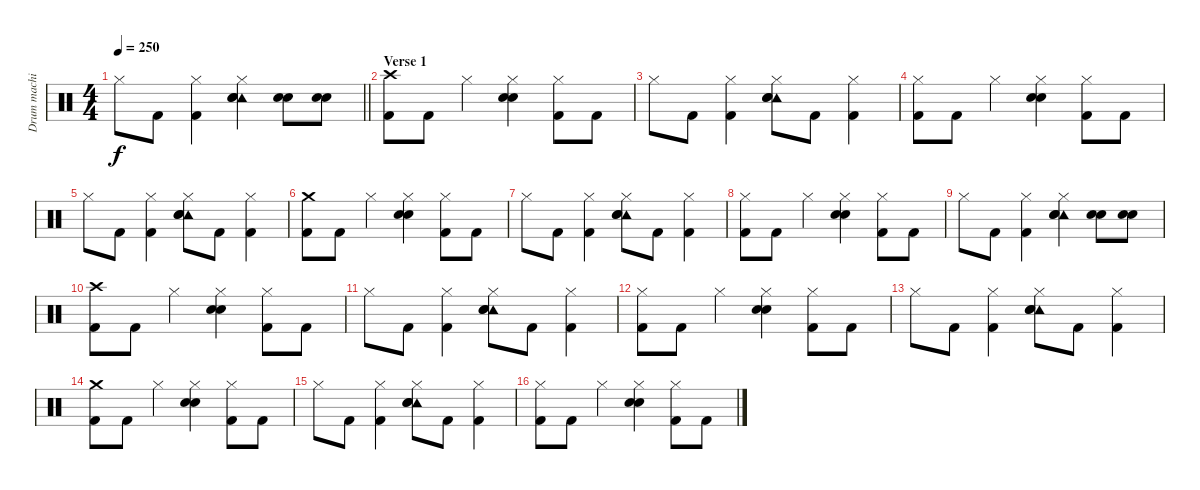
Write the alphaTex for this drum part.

\track ("Drum machine" "Drum machi") {instrument percussion}
\staff {score}
\articulation defaults
\ts (4 4)
\tempo 250
\clef neutral
\barLineRight lightlight
\ks c "Hi-Hat (closed)".8{dy f} "Kick (hit) 2".8
("Hi-Hat (closed)" "Kick (hit) 2").4 ("Tambourine (hit)" "Hi-Hat (closed)" "Electric Snare (hit)" "Snare (hit) 2").4 ("Electric Snare (hit)" "Snare (hit) 2").8 ("Electric Snare (hit)" "Snare (hit) 2").8 |
\section ("" "Verse 1")
("Crash high (hit)" "Kick (hit) 2").8 "Kick (hit) 2".8 "Hi-Hat (closed)".4 ("Hi-Hat (closed)" "Electric Snare (hit)" "Snare (hit) 2").4 ("Hi-Hat (closed)" "Kick (hit) 2").8 "Kick (hit) 2".8 |
"Hi-Hat (closed)".8 "Kick (hit) 2".8 ("Hi-Hat (closed)" "Kick (hit) 2").4 ("Tambourine (hit)" "Hi-Hat (closed)" "Electric Snare (hit)" "Snare (hit) 2").8 "Kick (hit) 2".8 ("Hi-Hat (closed)" "Kick (hit) 2").4 |
("Hi-Hat (closed)" "Kick (hit) 2").8 "Kick (hit) 2".8 "Hi-Hat (closed)".4 ("Hi-Hat (closed)" "Electric Snare (hit)" "Snare (hit) 2").4 ("Hi-Hat (closed)" "Kick (hit) 2").8 "Kick (hit) 2".8 |
"Hi-Hat (closed)".8 "Kick (hit) 2".8 ("Hi-Hat (closed)" "Kick (hit) 2").4 ("Tambourine (hit)" "Hi-Hat (closed)" "Electric Snare (hit)" "Snare (hit) 2").8 "Kick (hit) 2".8 ("Hi-Hat (closed)" "Kick (hit) 2").4 |
("Crash medium (hit)" "Kick (hit) 2").8 "Kick (hit) 2".8 "Hi-Hat (closed)".4 ("Hi-Hat (closed)" "Electric Snare (hit)" "Snare (hit) 2").4 ("Hi-Hat (closed)" "Kick (hit) 2").8 "Kick (hit) 2".8 |
"Hi-Hat (closed)".8 "Kick (hit) 2".8 ("Hi-Hat (closed)" "Kick (hit) 2").4 ("Tambourine (hit)" "Hi-Hat (closed)" "Electric Snare (hit)" "Snare (hit) 2").8 "Kick (hit) 2".8 ("Hi-Hat (closed)" "Kick (hit) 2").4 |
("Hi-Hat (closed)" "Kick (hit) 2").8 "Kick (hit) 2".8 "Hi-Hat (closed)".4 ("Hi-Hat (closed)" "Electric Snare (hit)" "Snare (hit) 2").4 ("Hi-Hat (closed)" "Kick (hit) 2").8 "Kick (hit) 2".8 |
"Hi-Hat (closed)".8 "Kick (hit) 2".8 ("Hi-Hat (closed)" "Kick (hit) 2").4 ("Tambourine (hit)" "Hi-Hat (closed)" "Electric Snare (hit)" "Snare (hit) 2").4 ("Electric Snare (hit)" "Snare (hit) 2").8 ("Electric Snare (hit)" "Snare (hit) 2").8 |
("Crash high (hit)" "Kick (hit) 2").8 "Kick (hit) 2".8 "Hi-Hat (closed)".4 ("Hi-Hat (closed)" "Electric Snare (hit)" "Snare (hit) 2").4 ("Hi-Hat (closed)" "Kick (hit) 2").8 "Kick (hit) 2".8 |
"Hi-Hat (closed)".8 "Kick (hit) 2".8 ("Hi-Hat (closed)" "Kick (hit) 2").4 ("Tambourine (hit)" "Hi-Hat (closed)" "Electric Snare (hit)" "Snare (hit) 2").8 "Kick (hit) 2".8 ("Hi-Hat (closed)" "Kick (hit) 2").4 |
("Hi-Hat (closed)" "Kick (hit) 2").8 "Kick (hit) 2".8 "Hi-Hat (closed)".4 ("Hi-Hat (closed)" "Electric Snare (hit)" "Snare (hit) 2").4 ("Hi-Hat (closed)" "Kick (hit) 2").8 "Kick (hit) 2".8 |
"Hi-Hat (closed)".8 "Kick (hit) 2".8 ("Hi-Hat (closed)" "Kick (hit) 2").4 ("Tambourine (hit)" "Hi-Hat (closed)" "Electric Snare (hit)" "Snare (hit) 2").8 "Kick (hit) 2".8 ("Hi-Hat (closed)" "Kick (hit) 2").4 |
("Crash medium (hit)" "Kick (hit) 2").8 "Kick (hit) 2".8 "Hi-Hat (closed)".4 ("Hi-Hat (closed)" "Electric Snare (hit)" "Snare (hit) 2").4 ("Hi-Hat (closed)" "Kick (hit) 2").8 "Kick (hit) 2".8 |
"Hi-Hat (closed)".8 "Kick (hit) 2".8 ("Hi-Hat (closed)" "Kick (hit) 2").4 ("Tambourine (hit)" "Hi-Hat (closed)" "Electric Snare (hit)" "Snare (hit) 2").8 "Kick (hit) 2".8 ("Hi-Hat (closed)" "Kick (hit) 2").4 |
("Hi-Hat (closed)" "Kick (hit) 2").8 "Kick (hit) 2".8 "Hi-Hat (closed)".4 ("Hi-Hat (closed)" "Electric Snare (hit)" "Snare (hit) 2").4 ("Hi-Hat (closed)" "Kick (hit) 2").8 "Kick (hit) 2".8
